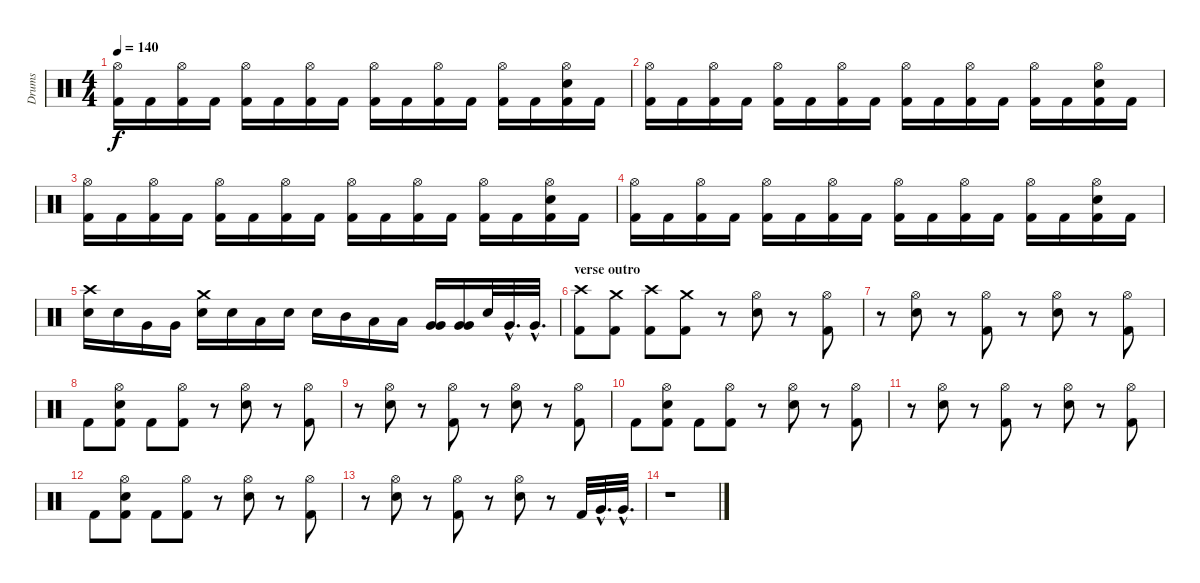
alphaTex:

\track ("Drums" "Drums") {instrument percussion}
\staff {score}
\articulation defaults
\ts (4 4)
\tempo 140
\clef neutral
\ks c
("Hi-Hat (open)" "Kick (hit) 2").16{dy f} "Kick (hit) 2".16 ("Hi-Hat (open)" "Kick (hit) 2").16 "Kick (hit) 2".16 ("Hi-Hat (open)" "Kick (hit) 2").16 "Kick (hit) 2".16 ("Hi-Hat (open)" "Kick (hit) 2").16 "Kick (hit) 2".16 ("Hi-Hat (open)" "Kick (hit) 2").16 "Kick (hit) 2".16 ("Hi-Hat (open)" "Kick (hit) 2").16 "Kick (hit) 2".16 ("Hi-Hat (open)" "Kick (hit) 2").16 "Kick (hit) 2".16 ("Hi-Hat (open)" "Snare (hit) 2" "Kick (hit) 2").16 "Kick (hit) 2".16 |
("Hi-Hat (open)" "Kick (hit) 2").16 "Kick (hit) 2".16 ("Hi-Hat (open)" "Kick (hit) 2").16 "Kick (hit) 2".16 ("Hi-Hat (open)" "Kick (hit) 2").16 "Kick (hit) 2".16 ("Hi-Hat (open)" "Kick (hit) 2").16 "Kick (hit) 2".16 ("Hi-Hat (open)" "Kick (hit) 2").16 "Kick (hit) 2".16 ("Hi-Hat (open)" "Kick (hit) 2").16 "Kick (hit) 2".16 ("Hi-Hat (open)" "Kick (hit) 2").16 "Kick (hit) 2".16 ("Hi-Hat (open)" "Snare (hit) 2" "Kick (hit) 2").16 "Kick (hit) 2".16 |
("Hi-Hat (open)" "Kick (hit) 2").16 "Kick (hit) 2".16 ("Hi-Hat (open)" "Kick (hit) 2").16 "Kick (hit) 2".16 ("Hi-Hat (open)" "Kick (hit) 2").16 "Kick (hit) 2".16 ("Hi-Hat (open)" "Kick (hit) 2").16 "Kick (hit) 2".16 ("Hi-Hat (open)" "Kick (hit) 2").16 "Kick (hit) 2".16 ("Hi-Hat (open)" "Kick (hit) 2").16 "Kick (hit) 2".16 ("Hi-Hat (open)" "Kick (hit) 2").16 "Kick (hit) 2".16 ("Hi-Hat (open)" "Snare (hit) 2" "Kick (hit) 2").16 "Kick (hit) 2".16 |
("Hi-Hat (open)" "Kick (hit) 2").16 "Kick (hit) 2".16 ("Hi-Hat (open)" "Kick (hit) 2").16 "Kick (hit) 2".16 ("Hi-Hat (open)" "Kick (hit) 2").16 "Kick (hit) 2".16 ("Hi-Hat (open)" "Kick (hit) 2").16 "Kick (hit) 2".16 ("Hi-Hat (open)" "Kick (hit) 2").16 "Kick (hit) 2".16 ("Hi-Hat (open)" "Kick (hit) 2").16 "Kick (hit) 2".16 ("Hi-Hat (open)" "Kick (hit) 2").16 "Kick (hit) 2".16 ("Hi-Hat (open)" "Snare (hit) 2" "Kick (hit) 2").16 "Kick (hit) 2".16 |
("Crash high (hit)" "Snare (hit) 2").16 "Snare (hit) 2".16 "Very Low Tom (hit)".16 "Very Low Tom (hit)".16 ("Crash medium (hit)" "Snare (hit) 2").16 "Snare (hit) 2".16 "Low Tom (hit)".16 "Snare (hit) 2".16 "Snare (hit) 2".16 "Mid Tom (hit)".16 "Low Tom (hit)".16 "Low Tom (hit)".16 ("Very Low Tom (hit)" "Very Low Tom (hit)").16 ("Very Low Tom (hit)" "Very Low Tom (hit)").16 "Snare (hit) 2".32 "Very Low Tom (hit)"{hac}.32{d} "Very Low Tom (hit)"{hac}.32{d} |
\section ("" "verse outro")
("Crash high (hit)" "Kick (hit) 2").8 ("Crash medium (hit)" "Kick (hit) 2").8 ("Crash high (hit)" "Kick (hit) 2").8 ("Crash medium (hit)" "Kick (hit) 2").8 r.8 ("Hi-Hat (open)" "Snare (hit) 2").8 r.8 ("Hi-Hat (open)" "Kick (hit) 2").8 |
r.8 ("Hi-Hat (open)" "Snare (hit) 2").8 r.8 ("Hi-Hat (open)" "Kick (hit) 2").8 r.8 ("Hi-Hat (open)" "Snare (hit) 2").8 r.8 ("Hi-Hat (open)" "Kick (hit) 2").8 |
"Kick (hit) 2".8 ("Hi-Hat (open)" "Snare (hit) 2" "Kick (hit) 2").8 "Kick (hit) 2".8 ("Hi-Hat (open)" "Kick (hit) 2").8 r.8 ("Hi-Hat (open)" "Snare (hit) 2").8 r.8 ("Hi-Hat (open)" "Kick (hit) 2").8 |
r.8 ("Hi-Hat (open)" "Snare (hit) 2").8 r.8 ("Hi-Hat (open)" "Kick (hit) 2").8 r.8 ("Hi-Hat (open)" "Snare (hit) 2").8 r.8 ("Hi-Hat (open)" "Kick (hit) 2").8 |
"Kick (hit) 2".8 ("Hi-Hat (open)" "Snare (hit) 2" "Kick (hit) 2").8 "Kick (hit) 2".8 ("Hi-Hat (open)" "Kick (hit) 2").8 r.8 ("Hi-Hat (open)" "Snare (hit) 2").8 r.8 ("Hi-Hat (open)" "Kick (hit) 2").8 |
r.8 ("Hi-Hat (open)" "Snare (hit) 2").8 r.8 ("Hi-Hat (open)" "Kick (hit) 2").8 r.8 ("Hi-Hat (open)" "Snare (hit) 2").8 r.8 ("Hi-Hat (open)" "Kick (hit) 2").8 |
"Kick (hit) 2".8 ("Hi-Hat (open)" "Snare (hit) 2" "Kick (hit) 2").8 "Kick (hit) 2".8 ("Hi-Hat (open)" "Kick (hit) 2").8 r.8 ("Hi-Hat (open)" "Snare (hit) 2").8 r.8 ("Hi-Hat (open)" "Kick (hit) 2").8 |
r.8 ("Hi-Hat (open)" "Snare (hit) 2").8 r.8 ("Hi-Hat (open)" "Kick (hit) 2").8 r.8 ("Hi-Hat (open)" "Snare (hit) 2").8 r.8 "Kick (hit) 2".32 "Very Low Tom (hit)"{hac}.32{d} "Very Low Tom (hit)"{hac}.32{d} |
r.1
